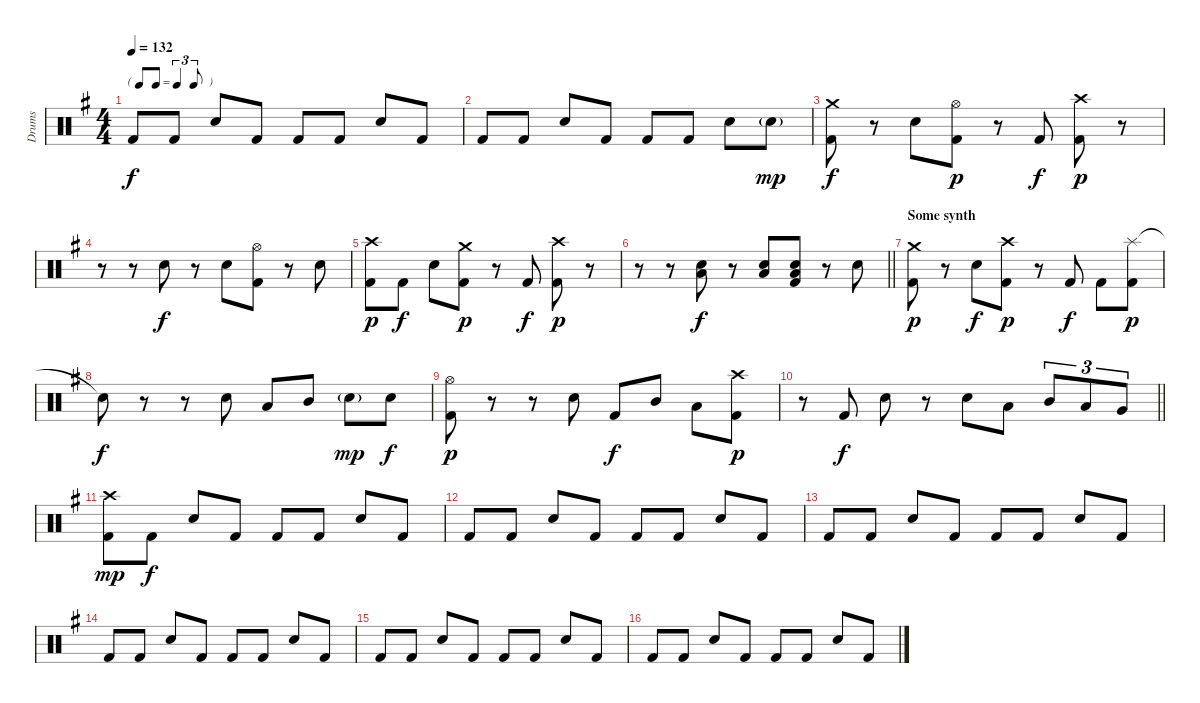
\track ("Drums" "Drums") {instrument percussion}
\staff {score}
\articulation defaults
\ts (4 4)
\tf triplet8th
\tempo 132
\clef neutral
\ks g "Kick (hit) 2".8{dy f} "Kick (hit) 2".8 "Electric Snare (hit)".8 "Kick (hit) 2".8 "Kick (hit) 2".8 "Kick (hit) 2".8 "Electric Snare (hit)".8 "Kick (hit) 2".8
|
"Kick (hit) 2".8 "Kick (hit) 2".8 "Electric Snare (hit)".8 "Kick (hit) 2".8 "Kick (hit) 2".8 "Kick (hit) 2".8 "Electric Snare (hit)".8 "Electric Snare (hit)"{g}.8{dy mp} |
("Crash medium (hit)" "Kick (hit) 2").8{dy f} r.8 "Electric Snare (hit)".8 ("Hi-Hat (open)" "Kick (hit) 2").8{dy p} r.8 "Kick (hit) 2".8{dy f} ("Crash high (hit)" "Kick (hit) 2").8{dy p} r.8 |
r.8 r.8 "Electric Snare (hit)".8{dy f} r.8 "Electric Snare (hit)".8 ("Hi-Hat (open)" "Kick (hit) 2").8 r.8 "Electric Snare (hit)".8 |
("Crash high (hit)" "Kick (hit) 2").8{dy p} "Kick (hit) 2".8{dy f} "Electric Snare (hit)".8 ("Crash medium (hit)" "Kick (hit) 2").8{dy p} r.8 "Kick (hit) 2".8{dy f} ("Crash high (hit)" "Kick (hit) 2").8{dy p} r.8 |
\barLineRight lightlight
r.8 r.8 ("Electric Snare (hit)" "Low Tom (hit)").8{dy f} r.8 ("Electric Snare (hit)" "Low Tom (hit)").8 ("Electric Snare (hit)" "Low Tom (hit)" "Kick (hit) 2").8 r.8 "Electric Snare (hit)".8 |
\section ("" "Some synth")
("Crash medium (hit)" "Kick (hit) 2").8{dy p} r.8 "Electric Snare (hit)".8{dy f} ("Crash high (hit)" "Kick (hit) 2").8{dy p} r.8 "Kick (hit) 2".8{dy f} "Kick (hit) 2".8 ("Splash (hit)" "Kick (hit) 2").8{dy p} |
"Snare (hit)"{t}.8{dy f} r.8 r.8 "Electric Snare (hit)".8 "Low Tom (hit)".8 "Mid Tom (hit)".8 "Electric Snare (hit)"{g}.8{dy mp} "Electric Snare (hit)".8{dy f} |
("Hi-Hat (open)" "Kick (hit) 2").8{dy p} r.8 r.8 "Electric Snare (hit)".8 "Kick (hit) 2".8{dy f} "Mid Tom (hit)".8 "Low Tom (hit)".8 ("Crash high (hit)" "Kick (hit) 2").8{dy p} |
\barLineRight lightlight
r.8 "Kick (hit) 2".8{dy f} "Electric Snare (hit)".8 r.8 "Electric Snare (hit)".8 "Low Tom (hit)".8 "Mid Tom (hit)".8{tu (3 2)} "Low Tom (hit)".8{tu (3 2)} "Very Low Tom (hit)".8{tu (3 2)} |
("Crash high (hit)" "Kick (hit) 2").8{dy mp} "Kick (hit) 2".8{dy f} "Electric Snare (hit)".8 "Kick (hit) 2".8 "Kick (hit) 2".8 "Kick (hit) 2".8 "Electric Snare (hit)".8 "Kick (hit) 2".8 |
"Kick (hit) 2".8 "Kick (hit) 2".8 "Electric Snare (hit)".8 "Kick (hit) 2".8 "Kick (hit) 2".8 "Kick (hit) 2".8 "Electric Snare (hit)".8 "Kick (hit) 2".8 |
"Kick (hit) 2".8 "Kick (hit) 2".8 "Electric Snare (hit)".8 "Kick (hit) 2".8 "Kick (hit) 2".8 "Kick (hit) 2".8 "Electric Snare (hit)".8 "Kick (hit) 2".8 |
"Kick (hit) 2".8 "Kick (hit) 2".8 "Electric Snare (hit)".8 "Kick (hit) 2".8 "Kick (hit) 2".8 "Kick (hit) 2".8 "Electric Snare (hit)".8 "Kick (hit) 2".8 |
"Kick (hit) 2".8 "Kick (hit) 2".8 "Electric Snare (hit)".8 "Kick (hit) 2".8 "Kick (hit) 2".8 "Kick (hit) 2".8 "Electric Snare (hit)".8 "Kick (hit) 2".8 |
"Kick (hit) 2".8 "Kick (hit) 2".8 "Electric Snare (hit)".8 "Kick (hit) 2".8 "Kick (hit) 2".8 "Kick (hit) 2".8 "Electric Snare (hit)".8 "Kick (hit) 2".8
